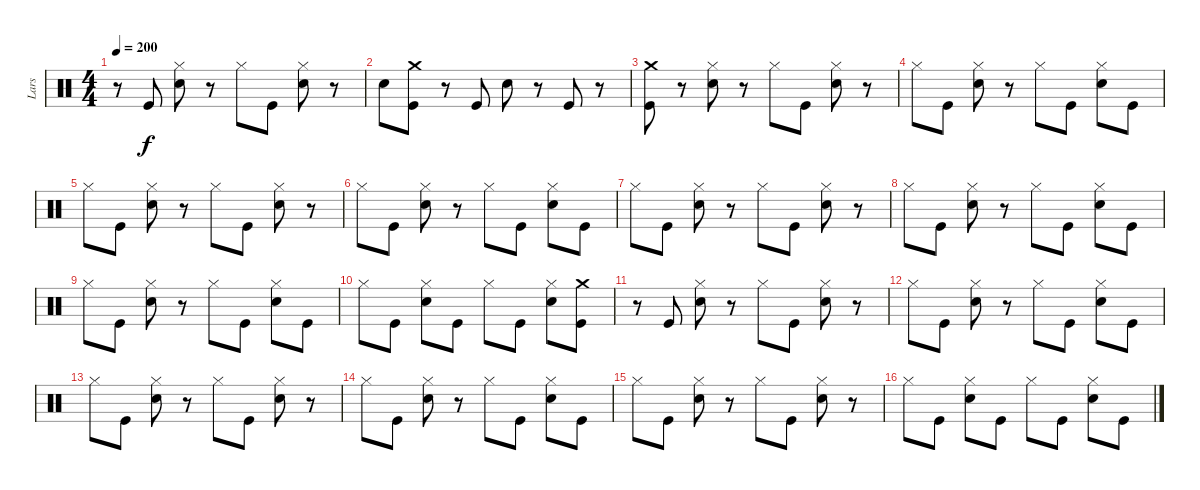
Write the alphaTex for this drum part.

\track ("Lars" "Lars") {instrument percussion}
\staff {score}
\articulation defaults
\ts (4 4)
\tempo 200
\clef neutral
\ks c
r.8{dy f} "Kick (hit)".8 ("Hi-Hat (closed)" "Snare (hit) 2").8 r.8 "Hi-Hat (closed)".8 "Kick (hit)".8 ("Hi-Hat (closed)" "Snare (hit) 2").8 r.8 |
"Snare (hit) 2".8 ("Kick (hit)" "Crash medium (hit)").8 r.8 "Kick (hit)".8 "Snare (hit) 2".8 r.8 "Kick (hit)".8 r.8 |
("Crash medium (hit)" "Kick (hit)").8 r.8 ("Hi-Hat (closed)" "Snare (hit) 2").8 r.8 "Hi-Hat (closed)".8 "Kick (hit)".8 ("Hi-Hat (closed)" "Snare (hit) 2").8 r.8 |
"Hi-Hat (closed)".8 "Kick (hit)".8 ("Hi-Hat (closed)" "Snare (hit) 2").8 r.8 "Hi-Hat (closed)".8 "Kick (hit)".8 ("Hi-Hat (closed)" "Snare (hit) 2").8 "Kick (hit)".8 |
"Hi-Hat (closed)".8 "Kick (hit)".8 ("Hi-Hat (closed)" "Snare (hit) 2").8 r.8 "Hi-Hat (closed)".8 "Kick (hit)".8 ("Snare (hit) 2" "Hi-Hat (closed)").8 r.8 |
"Hi-Hat (closed)".8 "Kick (hit)".8 ("Hi-Hat (closed)" "Snare (hit) 2").8 r.8 "Hi-Hat (closed)".8 "Kick (hit)".8 ("Hi-Hat (closed)" "Snare (hit) 2").8 "Kick (hit)".8 |
"Hi-Hat (closed)".8 "Kick (hit)".8 ("Snare (hit) 2" "Hi-Hat (closed)").8 r.8 "Hi-Hat (closed)".8 "Kick (hit)".8 ("Hi-Hat (closed)" "Snare (hit) 2").8 r.8 |
"Hi-Hat (closed)".8 "Kick (hit)".8 ("Hi-Hat (closed)" "Snare (hit) 2").8 r.8 "Hi-Hat (closed)".8 "Kick (hit)".8 ("Hi-Hat (closed)" "Snare (hit) 2").8 "Kick (hit)".8 |
"Hi-Hat (closed)".8 "Kick (hit)".8 ("Hi-Hat (closed)" "Snare (hit) 2").8 r.8 "Hi-Hat (closed)".8 "Kick (hit)".8 ("Hi-Hat (closed)" "Snare (hit) 2").8 "Kick (hit)".8 |
"Hi-Hat (closed)".8 "Kick (hit)".8 ("Hi-Hat (closed)" "Snare (hit) 2").8 "Kick (hit)".8 "Hi-Hat (closed)".8 "Kick (hit)".8 ("Hi-Hat (closed)" "Snare (hit) 2").8 ("Crash medium (hit)" "Kick (hit)").8 |
r.8 "Kick (hit)".8 ("Hi-Hat (closed)" "Snare (hit) 2").8 r.8 "Hi-Hat (closed)".8 "Kick (hit)".8 ("Hi-Hat (closed)" "Snare (hit) 2").8 r.8 |
"Hi-Hat (closed)".8 "Kick (hit)".8 ("Hi-Hat (closed)" "Snare (hit) 2").8 r.8 "Hi-Hat (closed)".8 "Kick (hit)".8 ("Hi-Hat (closed)" "Snare (hit) 2").8 "Kick (hit)".8 |
"Hi-Hat (closed)".8 "Kick (hit)".8 ("Hi-Hat (closed)" "Snare (hit) 2").8 r.8 "Hi-Hat (closed)".8 "Kick (hit)".8 ("Hi-Hat (closed)" "Snare (hit) 2").8 r.8 |
"Hi-Hat (closed)".8 "Kick (hit)".8 ("Snare (hit) 2" "Hi-Hat (closed)").8 r.8 "Hi-Hat (closed)".8 "Kick (hit)".8 ("Hi-Hat (closed)" "Snare (hit) 2").8 "Kick (hit)".8 |
"Hi-Hat (closed)".8 "Kick (hit)".8 ("Hi-Hat (closed)" "Snare (hit) 2").8 r.8 "Hi-Hat (closed)".8 "Kick (hit)".8 ("Hi-Hat (closed)" "Snare (hit) 2").8 r.8 |
"Hi-Hat (closed)".8 "Kick (hit)".8 ("Hi-Hat (closed)" "Snare (hit) 2").8 "Kick (hit)".8 "Hi-Hat (closed)".8 "Kick (hit)".8 ("Hi-Hat (closed)" "Snare (hit) 2").8 "Kick (hit)".8
